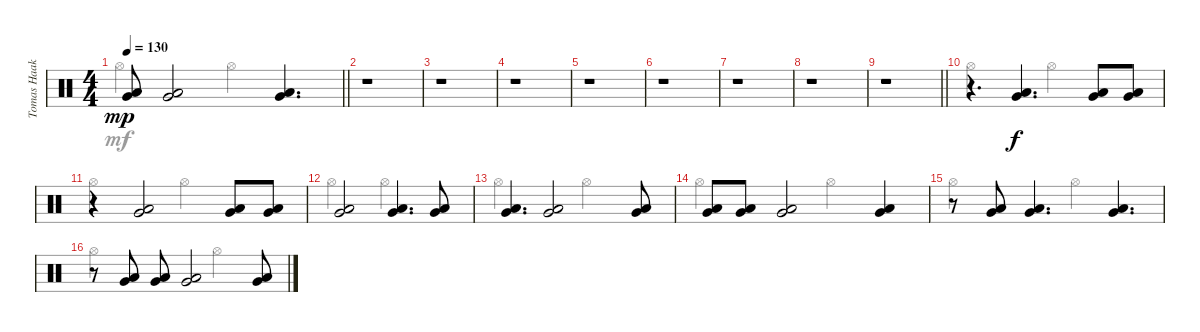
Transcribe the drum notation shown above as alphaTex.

\track ("Tomas Haake" "Tomas Haak") {instrument percussion}
\staff {score}
\articulation defaults
\voice
\ts (4 4)
\tempo 130
\clef neutral
\barLineRight lightlight
\ks c
("Very Low Tom (hit)" "Low Floor Tom (hit)").8{dy mp} ("Very Low Tom (hit)" "Low Floor Tom (hit)").2 ("Very Low Tom (hit)" "Low Floor Tom (hit)").4{d} |
r.1 |
r.1 |
r.1 |
r.1 |
r.1 |
r.1 |
r.1 |
\barLineRight lightlight
r.1 |
r.4{d volume 11} ("Very Low Tom (hit)" "Low Floor Tom (hit)").4{d dy f} ("Very Low Tom (hit)" "Low Floor Tom (hit)").8 ("Very Low Tom (hit)" "Low Floor Tom (hit)").8 |
r.4 ("Very Low Tom (hit)" "Low Floor Tom (hit)").2 ("Very Low Tom (hit)" "Low Floor Tom (hit)").8 ("Very Low Tom (hit)" "Low Floor Tom (hit)").8 |
("Very Low Tom (hit)" "Low Floor Tom (hit)").2 ("Very Low Tom (hit)" "Low Floor Tom (hit)").4{d} ("Very Low Tom (hit)" "Low Floor Tom (hit)").8 |
("Very Low Tom (hit)" "Low Floor Tom (hit)").4{d} ("Very Low Tom (hit)" "Low Floor Tom (hit)").2 ("Very Low Tom (hit)" "Low Floor Tom (hit)").8 |
("Very Low Tom (hit)" "Low Floor Tom (hit)").8 ("Very Low Tom (hit)" "Low Floor Tom (hit)").8 ("Very Low Tom (hit)" "Low Floor Tom (hit)").2 ("Very Low Tom (hit)" "Low Floor Tom (hit)").4 |
r.8 ("Very Low Tom (hit)" "Low Floor Tom (hit)").8 ("Very Low Tom (hit)" "Low Floor Tom (hit)").4{d} ("Very Low Tom (hit)" "Low Floor Tom (hit)").4{d} |
r.8{volume 9} ("Very Low Tom (hit)" "Low Floor Tom (hit)").8 ("Very Low Tom (hit)" "Low Floor Tom (hit)").8 ("Very Low Tom (hit)" "Low Floor Tom (hit)").2 ("Very Low Tom (hit)" "Low Floor Tom (hit)").8
\voice
\clef neutral
\ottava regular
\simile none
\barLineRight lightlight
\ks c "Hi-Hat (open)".2{dy mf} "Hi-Hat (open)".2
|
|
|
|
|
|
|
|
\barLineRight lightlight
|
"Hi-Hat (open)".2 "Hi-Hat (open)".2 |
"Hi-Hat (open)".2 "Hi-Hat (open)".2 |
"Hi-Hat (open)".2 "Hi-Hat (open)".2 |
"Hi-Hat (open)".2 "Hi-Hat (open)".2 |
"Hi-Hat (open)".2 "Hi-Hat (open)".2 |
"Hi-Hat (open)".2 "Hi-Hat (open)".2 |
"Hi-Hat (open)".2 "Hi-Hat (open)".2
